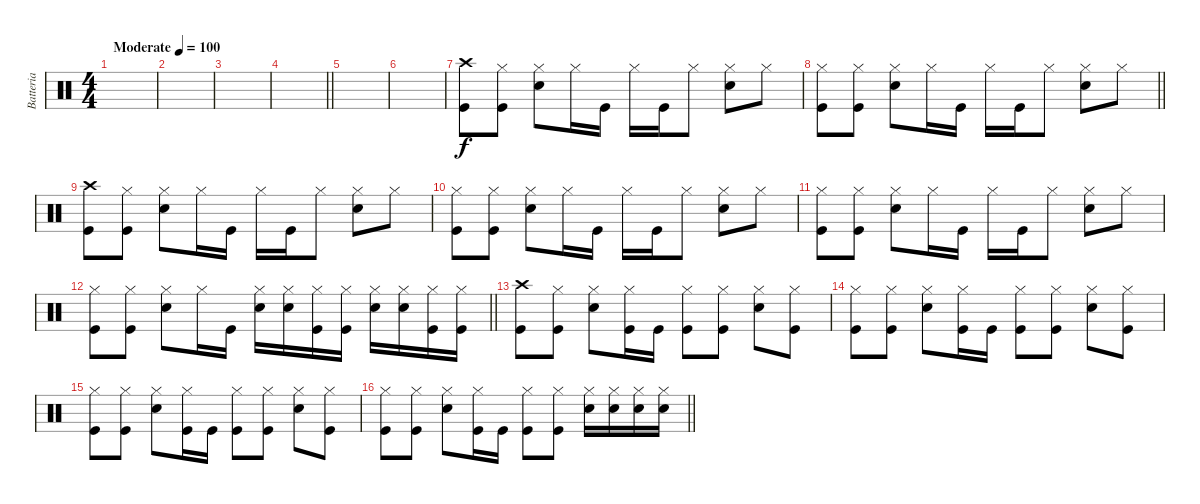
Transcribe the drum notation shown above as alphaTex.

\track ("Batteria" "Batteria") {instrument percussion}
\staff {score}
\articulation defaults
\ts (4 4)
\tempo (100 "Moderate")
\clef neutral
\ks c
|
|
|
\barLineRight lightlight
|
|
|
("Kick (hit)" "Crash high (hit)").8 ("Kick (hit)" "Hi-Hat (closed)").8 ("Snare (hit) 2" "Hi-Hat (closed)").8 "Hi-Hat (closed)".16 "Kick (hit)".16 "Hi-Hat (closed)".16 "Kick (hit)".16 "Hi-Hat (closed)".8 ("Snare (hit) 2" "Hi-Hat (closed)").8 "Hi-Hat (closed)".8 |
\barLineRight lightlight
("Kick (hit)" "Hi-Hat (closed)").8 ("Kick (hit)" "Hi-Hat (closed)").8 ("Snare (hit) 2" "Hi-Hat (closed)").8 "Hi-Hat (closed)".16 "Kick (hit)".16 "Hi-Hat (closed)".16 "Kick (hit)".16 "Hi-Hat (closed)".8 ("Snare (hit) 2" "Hi-Hat (closed)").8 "Hi-Hat (closed)".8 |
("Kick (hit)" "Crash high (hit)").8 ("Kick (hit)" "Hi-Hat (closed)").8 ("Snare (hit) 2" "Hi-Hat (closed)").8 "Hi-Hat (closed)".16 "Kick (hit)".16 "Hi-Hat (closed)".16 "Kick (hit)".16 "Hi-Hat (closed)".8 ("Snare (hit) 2" "Hi-Hat (closed)").8 "Hi-Hat (closed)".8 |
("Kick (hit)" "Hi-Hat (closed)").8 ("Kick (hit)" "Hi-Hat (closed)").8 ("Snare (hit) 2" "Hi-Hat (closed)").8 "Hi-Hat (closed)".16 "Kick (hit)".16 "Hi-Hat (closed)".16 "Kick (hit)".16 "Hi-Hat (closed)".8 ("Snare (hit) 2" "Hi-Hat (closed)").8 "Hi-Hat (closed)".8 |
("Kick (hit)" "Hi-Hat (closed)").8 ("Kick (hit)" "Hi-Hat (closed)").8 ("Snare (hit) 2" "Hi-Hat (closed)").8 "Hi-Hat (closed)".16 "Kick (hit)".16 "Hi-Hat (closed)".16 "Kick (hit)".16 "Hi-Hat (closed)".8 ("Snare (hit) 2" "Hi-Hat (closed)").8 "Hi-Hat (closed)".8 |
\barLineRight lightlight
("Kick (hit)" "Hi-Hat (closed)").8 ("Kick (hit)" "Hi-Hat (closed)").8 ("Snare (hit) 2" "Hi-Hat (closed)").8 "Hi-Hat (closed)".16 "Kick (hit)".16 ("Snare (hit) 2" "Hi-Hat (closed)").16 ("Snare (hit) 2" "Hi-Hat (closed)").16 ("Kick (hit)" "Hi-Hat (closed)").16 ("Kick (hit)" "Hi-Hat (closed)").16 ("Snare (hit) 2" "Hi-Hat (closed)").16 ("Snare (hit) 2" "Hi-Hat (closed)").16 ("Kick (hit)" "Hi-Hat (closed)").16 ("Kick (hit)" "Hi-Hat (closed)").16 |
("Crash high (hit)" "Kick (hit)").8 ("Hi-Hat (closed)" "Kick (hit)").8 ("Snare (hit) 2" "Hi-Hat (closed)").8 ("Hi-Hat (closed)" "Kick (hit)").16 "Kick (hit)".16 ("Kick (hit)" "Hi-Hat (closed)").8 ("Kick (hit)" "Hi-Hat (closed)").8 ("Snare (hit) 2" "Hi-Hat (closed)").8 ("Kick (hit)" "Hi-Hat (closed)").8 |
("Hi-Hat (closed)" "Kick (hit)").8 ("Hi-Hat (closed)" "Kick (hit)").8 ("Snare (hit) 2" "Hi-Hat (closed)").8 ("Hi-Hat (closed)" "Kick (hit)").16 "Kick (hit)".16 ("Kick (hit)" "Hi-Hat (closed)").8 ("Kick (hit)" "Hi-Hat (closed)").8 ("Snare (hit) 2" "Hi-Hat (closed)").8 ("Kick (hit)" "Hi-Hat (closed)").8 |
("Hi-Hat (closed)" "Kick (hit)").8 ("Hi-Hat (closed)" "Kick (hit)").8 ("Snare (hit) 2" "Hi-Hat (closed)").8 ("Hi-Hat (closed)" "Kick (hit)").16 "Kick (hit)".16 ("Kick (hit)" "Hi-Hat (closed)").8 ("Kick (hit)" "Hi-Hat (closed)").8 ("Snare (hit) 2" "Hi-Hat (closed)").8 ("Kick (hit)" "Hi-Hat (closed)").8 |
\barLineRight lightlight
("Hi-Hat (closed)" "Kick (hit)").8 ("Hi-Hat (closed)" "Kick (hit)").8 ("Snare (hit) 2" "Hi-Hat (closed)").8 ("Hi-Hat (closed)" "Kick (hit)").16 "Kick (hit)".16 ("Kick (hit)" "Hi-Hat (closed)").8 ("Kick (hit)" "Hi-Hat (closed)").8 ("Snare (hit) 2" "Hi-Hat (closed)").16 ("Snare (hit) 2" "Hi-Hat (closed)").16 ("Snare (hit) 2" "Hi-Hat (closed)").16 ("Snare (hit) 2" "Hi-Hat (closed)").16
